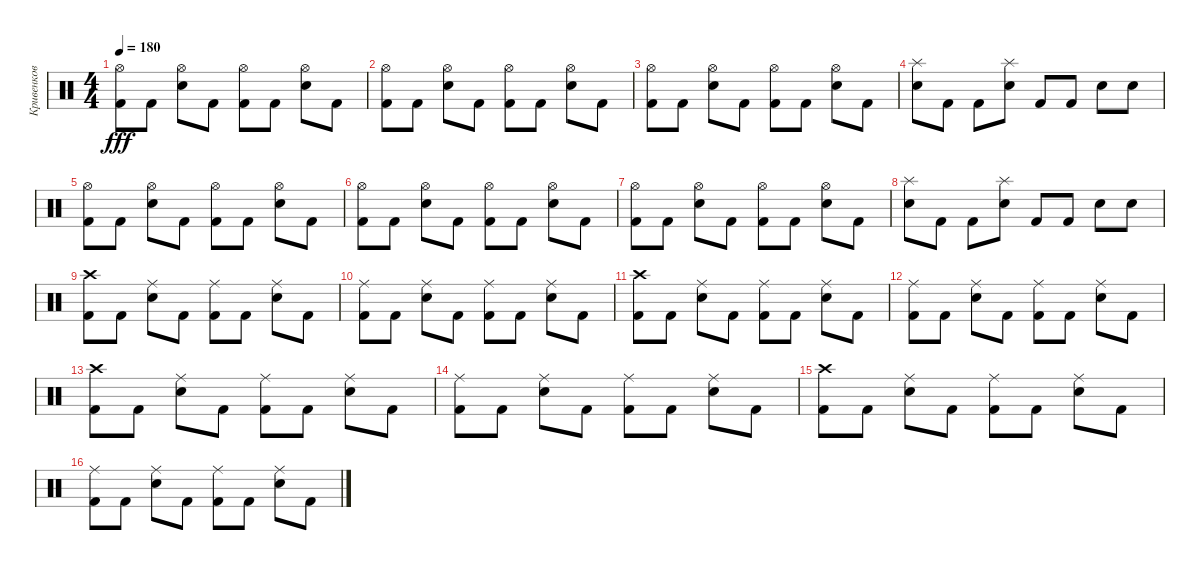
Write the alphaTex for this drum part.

\track ("Кривенков" "Кривенков") {instrument percussion}
\staff {score}
\articulation defaults
\ts (4 4)
\tempo 180
\clef neutral
\ks c
("Kick (hit) 2" "Hi-Hat (open)").8{dy fff} "Kick (hit) 2".8 ("Snare (hit) 2" "Hi-Hat (open)").8 "Kick (hit) 2".8 ("Kick (hit) 2" "Hi-Hat (open)").8 "Kick (hit) 2".8 ("Hi-Hat (open)" "Snare (hit) 2").8 "Kick (hit) 2".8 |
("Hi-Hat (open)" "Kick (hit) 2").8 "Kick (hit) 2".8 ("Hi-Hat (open)" "Snare (hit) 2").8 "Kick (hit) 2".8 ("Kick (hit) 2" "Hi-Hat (open)").8 "Kick (hit) 2".8 ("Hi-Hat (open)" "Snare (hit) 2").8 "Kick (hit) 2".8 |
("Kick (hit) 2" "Hi-Hat (open)").8 "Kick (hit) 2".8 ("Hi-Hat (open)" "Snare (hit) 2").8 "Kick (hit) 2".8 ("Kick (hit) 2" "Hi-Hat (open)").8 "Kick (hit) 2".8 ("Snare (hit) 2" "Hi-Hat (open)").8 "Kick (hit) 2".8 |
("Splash (hit)" "Electric Snare (hit)").8 "Kick (hit) 2".8 "Kick (hit) 2".8 ("Splash (hit)" "Electric Snare (hit)").8 "Kick (hit) 2".8 "Kick (hit) 2".8 "Electric Snare (hit)".8 "Electric Snare (hit)".8 |
("Hi-Hat (open)" "Kick (hit) 2").8 "Kick (hit) 2".8 ("Hi-Hat (open)" "Snare (hit) 2").8 "Kick (hit) 2".8 ("Kick (hit) 2" "Hi-Hat (open)").8 "Kick (hit) 2".8 ("Snare (hit) 2" "Hi-Hat (open)").8 "Kick (hit) 2".8 |
("Hi-Hat (open)" "Kick (hit) 2").8 "Kick (hit) 2".8 ("Snare (hit) 2" "Hi-Hat (open)").8 "Kick (hit) 2".8 ("Hi-Hat (open)" "Kick (hit) 2").8 "Kick (hit) 2".8 ("Hi-Hat (open)" "Snare (hit) 2").8 "Kick (hit) 2".8 |
("Hi-Hat (open)" "Kick (hit) 2").8 "Kick (hit) 2".8 ("Snare (hit) 2" "Hi-Hat (open)").8 "Kick (hit) 2".8 ("Kick (hit) 2" "Hi-Hat (open)").8 "Kick (hit) 2".8 ("Hi-Hat (open)" "Snare (hit) 2").8 "Kick (hit) 2".8 |
("Splash (hit)" "Electric Snare (hit)").8 "Kick (hit) 2".8 "Kick (hit) 2".8 ("Splash (hit)" "Electric Snare (hit)").8 "Kick (hit) 2".8 "Kick (hit) 2".8 "Electric Snare (hit)".8 "Electric Snare (hit)".8 |
("Kick (hit) 2" "Crash high (hit)").8 "Kick (hit) 2".8 ("Ride (middle)" "Snare (hit) 2").8 "Kick (hit) 2".8 ("Kick (hit) 2" "Ride (middle)").8 "Kick (hit) 2".8 ("Snare (hit) 2" "Ride (middle)").8 "Kick (hit) 2".8 |
("Kick (hit) 2" "Ride (middle)").8 "Kick (hit) 2".8 ("Snare (hit) 2" "Ride (middle)").8 "Kick (hit) 2".8 ("Ride (middle)" "Kick (hit) 2").8 "Kick (hit) 2".8 ("Ride (middle)" "Snare (hit) 2").8 "Kick (hit) 2".8 |
("Kick (hit) 2" "Crash high (hit)").8 "Kick (hit) 2".8 ("Ride (middle)" "Snare (hit) 2").8 "Kick (hit) 2".8 ("Kick (hit) 2" "Ride (middle)").8 "Kick (hit) 2".8 ("Ride (middle)" "Snare (hit) 2").8 "Kick (hit) 2".8 |
("Ride (middle)" "Kick (hit) 2").8 "Kick (hit) 2".8 ("Snare (hit) 2" "Ride (middle)").8 "Kick (hit) 2".8 ("Ride (middle)" "Kick (hit) 2").8 "Kick (hit) 2".8 ("Snare (hit) 2" "Ride (middle)").8 "Kick (hit) 2".8 |
("Kick (hit) 2" "Crash high (hit)").8 "Kick (hit) 2".8 ("Ride (middle)" "Snare (hit) 2").8 "Kick (hit) 2".8 ("Kick (hit) 2" "Ride (middle)").8 "Kick (hit) 2".8 ("Snare (hit) 2" "Ride (middle)").8 "Kick (hit) 2".8 |
("Ride (middle)" "Kick (hit) 2").8 "Kick (hit) 2".8 ("Ride (middle)" "Snare (hit) 2").8 "Kick (hit) 2".8 ("Kick (hit) 2" "Ride (middle)").8 "Kick (hit) 2".8 ("Snare (hit) 2" "Ride (middle)").8 "Kick (hit) 2".8 |
("Crash high (hit)" "Kick (hit) 2").8 "Kick (hit) 2".8 ("Ride (middle)" "Snare (hit) 2").8 "Kick (hit) 2".8 ("Ride (middle)" "Kick (hit) 2").8 "Kick (hit) 2".8 ("Ride (middle)" "Snare (hit) 2").8 "Kick (hit) 2".8 |
("Ride (middle)" "Kick (hit) 2").8 "Kick (hit) 2".8 ("Snare (hit) 2" "Ride (middle)").8 "Kick (hit) 2".8 ("Ride (middle)" "Kick (hit) 2").8 "Kick (hit) 2".8 ("Snare (hit) 2" "Ride (middle)").8 "Kick (hit) 2".8
